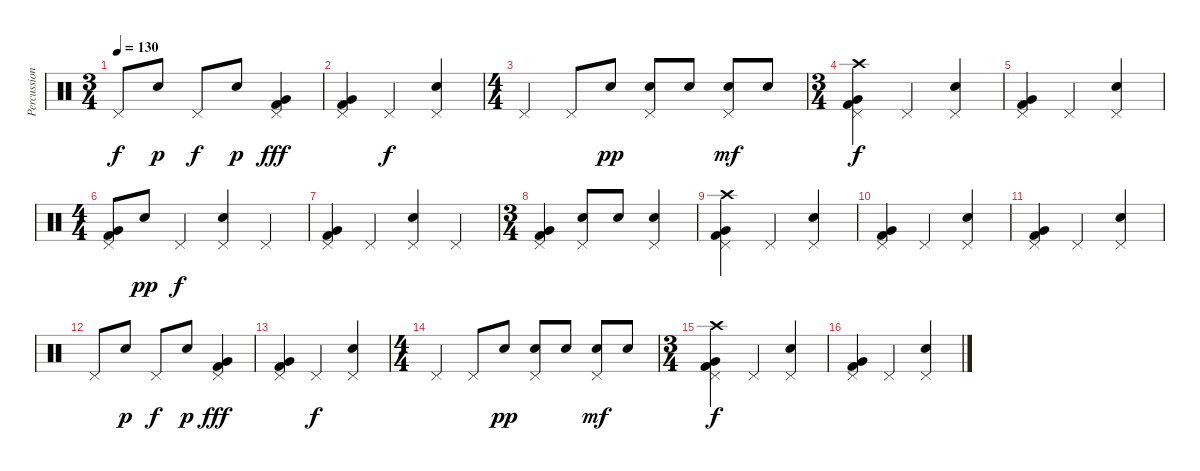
\track ("Percussion" "Percussion") {instrument percussion}
\staff {score}
\articulation defaults
\ts (3 4)
\tempo 130
\clef neutral
\ks c "Pedal Hi-Hat (hit)".8{dy f} "Electric Snare (hit)".8{dy p} "Pedal Hi-Hat (hit)".8{dy f} "Electric Snare (hit)".8{dy p}
("Pedal Hi-Hat (hit)" "Very Low Tom (hit)" "Kick (hit) 2").4{dy fff} |
("Pedal Hi-Hat (hit)" "Very Low Tom (hit)" "Kick (hit) 2").4 "Pedal Hi-Hat (hit)".4{dy f} ("Pedal Hi-Hat (hit)" "Electric Snare (hit)").4 |
\ts (4 4)
"Pedal Hi-Hat (hit)".4 "Pedal Hi-Hat (hit)".8 "Electric Snare (hit)".8{dy pp} ("Pedal Hi-Hat (hit)" "Electric Snare (hit)").8 "Electric Snare (hit)".8 ("Pedal Hi-Hat (hit)" "Electric Snare (hit)").8{dy mf} "Electric Snare (hit)".8 |
\ts (3 4)
("Crash high (hit)" "Pedal Hi-Hat (hit)" "Very Low Tom (hit)" "Kick (hit) 2").4{dy f} "Pedal Hi-Hat (hit)".4 ("Pedal Hi-Hat (hit)" "Electric Snare (hit)").4 |
("Pedal Hi-Hat (hit)" "Very Low Tom (hit)" "Kick (hit) 2").4 "Pedal Hi-Hat (hit)".4 ("Pedal Hi-Hat (hit)" "Electric Snare (hit)").4 |
\ts (4 4)
("Pedal Hi-Hat (hit)" "Very Low Tom (hit)" "Kick (hit) 2").8 "Electric Snare (hit)".8{dy pp} "Pedal Hi-Hat (hit)".4{dy f} ("Pedal Hi-Hat (hit)" "Electric Snare (hit)").4 "Pedal Hi-Hat (hit)".4 |
("Pedal Hi-Hat (hit)" "Very Low Tom (hit)" "Kick (hit) 2").4 "Pedal Hi-Hat (hit)".4 ("Pedal Hi-Hat (hit)" "Electric Snare (hit)").4 "Pedal Hi-Hat (hit)".4 |
\ts (3 4)
("Pedal Hi-Hat (hit)" "Very Low Tom (hit)" "Kick (hit) 2").4 ("Pedal Hi-Hat (hit)" "Electric Snare (hit)").8 "Electric Snare (hit)".8 ("Pedal Hi-Hat (hit)" "Electric Snare (hit)").4 |
("Crash high (hit)" "Pedal Hi-Hat (hit)" "Very Low Tom (hit)" "Kick (hit) 2").4 "Pedal Hi-Hat (hit)".4 ("Pedal Hi-Hat (hit)" "Electric Snare (hit)").4 |
("Pedal Hi-Hat (hit)" "Very Low Tom (hit)" "Kick (hit) 2").4 "Pedal Hi-Hat (hit)".4 ("Pedal Hi-Hat (hit)" "Electric Snare (hit)").4 |
("Pedal Hi-Hat (hit)" "Very Low Tom (hit)" "Kick (hit) 2").4 "Pedal Hi-Hat (hit)".4 ("Pedal Hi-Hat (hit)" "Electric Snare (hit)").4 |
"Pedal Hi-Hat (hit)".8 "Electric Snare (hit)".8{dy p} "Pedal Hi-Hat (hit)".8{dy f} "Electric Snare (hit)".8{dy p} ("Pedal Hi-Hat (hit)" "Very Low Tom (hit)" "Kick (hit) 2").4{dy fff} |
("Pedal Hi-Hat (hit)" "Very Low Tom (hit)" "Kick (hit) 2").4 "Pedal Hi-Hat (hit)".4{dy f} ("Pedal Hi-Hat (hit)" "Electric Snare (hit)").4 |
\ts (4 4)
"Pedal Hi-Hat (hit)".4 "Pedal Hi-Hat (hit)".8 "Electric Snare (hit)".8{dy pp} ("Pedal Hi-Hat (hit)" "Electric Snare (hit)").8 "Electric Snare (hit)".8 ("Pedal Hi-Hat (hit)" "Electric Snare (hit)").8{dy mf} "Electric Snare (hit)".8 |
\ts (3 4)
("Crash high (hit)" "Pedal Hi-Hat (hit)" "Very Low Tom (hit)" "Kick (hit) 2").4{dy f} "Pedal Hi-Hat (hit)".4 ("Pedal Hi-Hat (hit)" "Electric Snare (hit)").4 |
("Pedal Hi-Hat (hit)" "Very Low Tom (hit)" "Kick (hit) 2").4 "Pedal Hi-Hat (hit)".4 ("Pedal Hi-Hat (hit)" "Electric Snare (hit)").4
